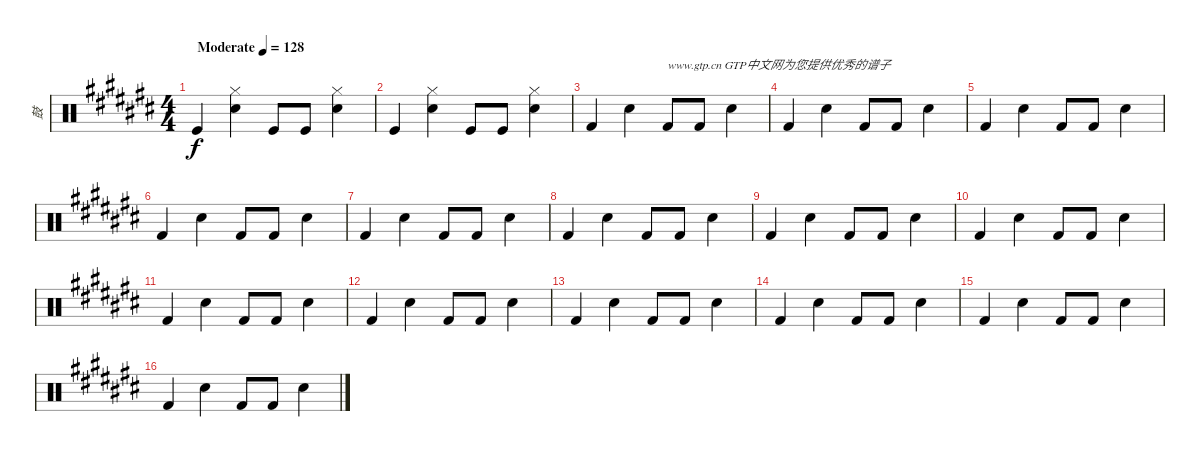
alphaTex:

\track ("鼓" "鼓") {instrument percussion}
\staff {score}
\articulation defaults
\ts (4 4)
\tempo (128 "Moderate")
\clef neutral
\ks c# "Kick (hit)".4{dy f}
("Hand Clap (hit)" "Hi-Hat (closed)").4 "Kick (hit)".8 "Kick (hit)".8 ("Hand Clap (hit)" "Hi-Hat (closed)").4 |
"Kick (hit)".4 ("Hand Clap (hit)" "Hi-Hat (closed)").4 "Kick (hit)".8 "Kick (hit)".8 ("Hand Clap (hit)" "Hi-Hat (closed)").4 |
"Kick (hit) 2".4 "Hand Clap (hit)".4 "Kick (hit) 2".8{txt "www.gtp.cn GTP中文网为您提供优秀的谱子"} "Kick (hit) 2".8 "Hand Clap (hit)".4 |
"Kick (hit) 2".4 "Hand Clap (hit)".4 "Kick (hit) 2".8 "Kick (hit) 2".8 "Hand Clap (hit)".4 |
"Kick (hit) 2".4 "Hand Clap (hit)".4 "Kick (hit) 2".8 "Kick (hit) 2".8 "Hand Clap (hit)".4 |
"Kick (hit) 2".4 "Hand Clap (hit)".4 "Kick (hit) 2".8 "Kick (hit) 2".8 "Hand Clap (hit)".4 |
"Kick (hit) 2".4 "Hand Clap (hit)".4 "Kick (hit) 2".8 "Kick (hit) 2".8 "Hand Clap (hit)".4 |
"Kick (hit) 2".4 "Hand Clap (hit)".4 "Kick (hit) 2".8 "Kick (hit) 2".8 "Hand Clap (hit)".4 |
"Kick (hit) 2".4 "Hand Clap (hit)".4 "Kick (hit) 2".8 "Kick (hit) 2".8 "Hand Clap (hit)".4 |
"Kick (hit) 2".4 "Hand Clap (hit)".4 "Kick (hit) 2".8 "Kick (hit) 2".8 "Hand Clap (hit)".4 |
"Kick (hit) 2".4 "Hand Clap (hit)".4 "Kick (hit) 2".8 "Kick (hit) 2".8 "Hand Clap (hit)".4 |
"Kick (hit) 2".4 "Hand Clap (hit)".4 "Kick (hit) 2".8 "Kick (hit) 2".8 "Hand Clap (hit)".4 |
"Kick (hit) 2".4 "Hand Clap (hit)".4 "Kick (hit) 2".8 "Kick (hit) 2".8 "Hand Clap (hit)".4 |
"Kick (hit) 2".4 "Hand Clap (hit)".4 "Kick (hit) 2".8 "Kick (hit) 2".8 "Hand Clap (hit)".4 |
"Kick (hit) 2".4 "Hand Clap (hit)".4 "Kick (hit) 2".8 "Kick (hit) 2".8 "Hand Clap (hit)".4 |
"Kick (hit) 2".4 "Hand Clap (hit)".4 "Kick (hit) 2".8 "Kick (hit) 2".8 "Hand Clap (hit)".4
